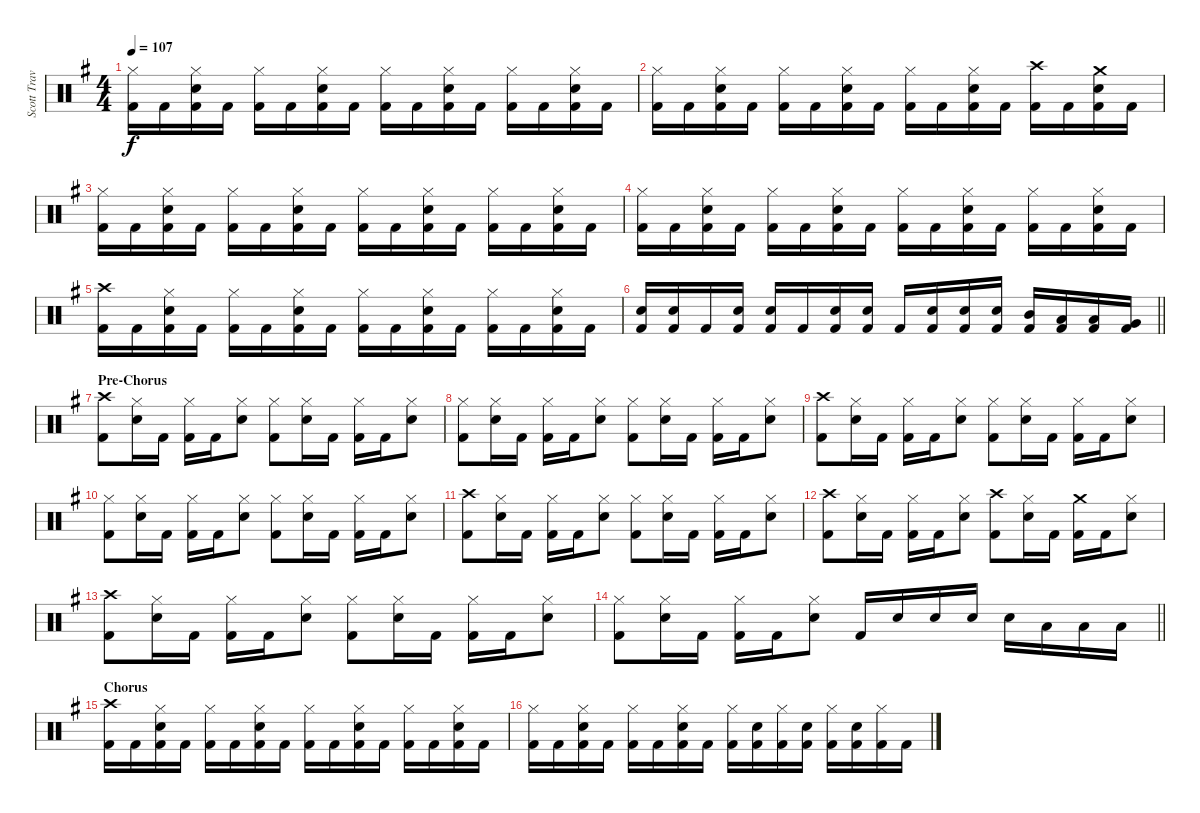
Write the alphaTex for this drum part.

\track ("Scott Travis" "Scott Trav") {instrument percussion}
\staff {score}
\articulation defaults
\ts (4 4)
\tempo 107
\clef neutral
\ks eminor
("Hi-Hat (closed)" "Kick (hit) 2").16{dy f} "Kick (hit) 2".16 ("Hi-Hat (closed)" "Snare (hit) 2" "Kick (hit) 2").16 "Kick (hit) 2".16 ("Hi-Hat (closed)" "Kick (hit) 2").16 "Kick (hit) 2".16 ("Hi-Hat (closed)" "Snare (hit) 2" "Kick (hit) 2").16 "Kick (hit) 2".16 ("Hi-Hat (closed)" "Kick (hit) 2").16 "Kick (hit) 2".16 ("Hi-Hat (closed)" "Snare (hit) 2" "Kick (hit) 2").16 "Kick (hit) 2".16 ("Hi-Hat (closed)" "Kick (hit) 2").16 "Kick (hit) 2".16 ("Hi-Hat (closed)" "Snare (hit) 2" "Kick (hit) 2").16 "Kick (hit) 2".16 |
("Hi-Hat (closed)" "Kick (hit) 2").16 "Kick (hit) 2".16 ("Hi-Hat (closed)" "Snare (hit) 2" "Kick (hit) 2").16 "Kick (hit) 2".16 ("Hi-Hat (closed)" "Kick (hit) 2").16 "Kick (hit) 2".16 ("Hi-Hat (closed)" "Snare (hit) 2" "Kick (hit) 2").16 "Kick (hit) 2".16 ("Hi-Hat (closed)" "Kick (hit) 2").16 "Kick (hit) 2".16 ("Hi-Hat (closed)" "Snare (hit) 2" "Kick (hit) 2").16 "Kick (hit) 2".16 ("Crash high (hit)" "Kick (hit) 2").16 "Kick (hit) 2".16 ("Crash medium (hit)" "Snare (hit) 2" "Kick (hit) 2").16 "Kick (hit) 2".16 |
("Hi-Hat (closed)" "Kick (hit) 2").16 "Kick (hit) 2".16 ("Hi-Hat (closed)" "Snare (hit) 2" "Kick (hit) 2").16 "Kick (hit) 2".16 ("Hi-Hat (closed)" "Kick (hit) 2").16 "Kick (hit) 2".16 ("Hi-Hat (closed)" "Snare (hit) 2" "Kick (hit) 2").16 "Kick (hit) 2".16 ("Hi-Hat (closed)" "Kick (hit) 2").16 "Kick (hit) 2".16 ("Hi-Hat (closed)" "Snare (hit) 2" "Kick (hit) 2").16 "Kick (hit) 2".16 ("Hi-Hat (closed)" "Kick (hit) 2").16 "Kick (hit) 2".16 ("Hi-Hat (closed)" "Snare (hit) 2" "Kick (hit) 2").16 "Kick (hit) 2".16 |
("Hi-Hat (closed)" "Kick (hit) 2").16 "Kick (hit) 2".16 ("Hi-Hat (closed)" "Snare (hit) 2" "Kick (hit) 2").16 "Kick (hit) 2".16 ("Hi-Hat (closed)" "Kick (hit) 2").16 "Kick (hit) 2".16 ("Hi-Hat (closed)" "Snare (hit) 2" "Kick (hit) 2").16 "Kick (hit) 2".16 ("Hi-Hat (closed)" "Kick (hit) 2").16 "Kick (hit) 2".16 ("Hi-Hat (closed)" "Snare (hit) 2" "Kick (hit) 2").16 "Kick (hit) 2".16 ("Hi-Hat (closed)" "Kick (hit) 2").16 "Kick (hit) 2".16 ("Hi-Hat (closed)" "Snare (hit) 2" "Kick (hit) 2").16 "Kick (hit) 2".16 |
("Crash high (hit)" "Kick (hit) 2").16 "Kick (hit) 2".16 ("Hi-Hat (closed)" "Snare (hit) 2" "Kick (hit) 2").16 "Kick (hit) 2".16 ("Hi-Hat (closed)" "Kick (hit) 2").16 "Kick (hit) 2".16 ("Hi-Hat (closed)" "Snare (hit) 2" "Kick (hit) 2").16 "Kick (hit) 2".16 ("Hi-Hat (closed)" "Kick (hit) 2").16 "Kick (hit) 2".16 ("Hi-Hat (closed)" "Snare (hit) 2" "Kick (hit) 2").16 "Kick (hit) 2".16 ("Hi-Hat (closed)" "Kick (hit) 2").16 "Kick (hit) 2".16 ("Hi-Hat (closed)" "Snare (hit) 2" "Kick (hit) 2").16 "Kick (hit) 2".16 |
\barLineRight lightlight
("Snare (hit) 2" "Kick (hit) 2").16 ("Snare (hit) 2" "Kick (hit) 2").16 "Kick (hit) 2".16 ("Snare (hit) 2" "Kick (hit) 2").16 ("Snare (hit) 2" "Kick (hit) 2").16 "Kick (hit) 2".16 ("Snare (hit) 2" "Kick (hit) 2").16 ("Snare (hit) 2" "Kick (hit) 2").16 "Kick (hit) 2".16 ("Snare (hit) 2" "Kick (hit) 2").16 ("Snare (hit) 2" "Kick (hit) 2").16 ("Snare (hit) 2" "Kick (hit) 2").16 ("Mid Tom (hit)" "Kick (hit) 2").16 ("Low Tom (hit)" "Kick (hit) 2").16 ("Low Tom (hit)" "Kick (hit) 2").16 ("Very Low Tom (hit)" "Kick (hit) 2").16 |
\section ("" "Pre-Chorus")
("Crash high (hit)" "Kick (hit) 2").8 ("Hi-Hat (closed)" "Snare (hit) 2").16 "Kick (hit) 2".16 ("Hi-Hat (closed)" "Kick (hit) 2").16 "Kick (hit) 2".16 ("Hi-Hat (closed)" "Snare (hit) 2").8 ("Hi-Hat (closed)" "Kick (hit) 2").8 ("Hi-Hat (closed)" "Snare (hit) 2").16 "Kick (hit) 2".16 ("Hi-Hat (closed)" "Kick (hit) 2").16 "Kick (hit) 2".16 ("Hi-Hat (closed)" "Snare (hit) 2").8 |
("Hi-Hat (closed)" "Kick (hit) 2").8 ("Hi-Hat (closed)" "Snare (hit) 2").16 "Kick (hit) 2".16 ("Hi-Hat (closed)" "Kick (hit) 2").16 "Kick (hit) 2".16 ("Hi-Hat (closed)" "Snare (hit) 2").8 ("Hi-Hat (closed)" "Kick (hit) 2").8 ("Hi-Hat (closed)" "Snare (hit) 2").16 "Kick (hit) 2".16 ("Hi-Hat (closed)" "Kick (hit) 2").16 "Kick (hit) 2".16 ("Hi-Hat (closed)" "Snare (hit) 2").8 |
("Crash high (hit)" "Kick (hit) 2").8 ("Hi-Hat (closed)" "Snare (hit) 2").16 "Kick (hit) 2".16 ("Hi-Hat (closed)" "Kick (hit) 2").16 "Kick (hit) 2".16 ("Hi-Hat (closed)" "Snare (hit) 2").8 ("Hi-Hat (closed)" "Kick (hit) 2").8 ("Hi-Hat (closed)" "Snare (hit) 2").16 "Kick (hit) 2".16 ("Hi-Hat (closed)" "Kick (hit) 2").16 "Kick (hit) 2".16 ("Hi-Hat (closed)" "Snare (hit) 2").8 |
("Hi-Hat (closed)" "Kick (hit) 2").8 ("Hi-Hat (closed)" "Snare (hit) 2").16 "Kick (hit) 2".16 ("Hi-Hat (closed)" "Kick (hit) 2").16 "Kick (hit) 2".16 ("Hi-Hat (closed)" "Snare (hit) 2").8 ("Hi-Hat (closed)" "Kick (hit) 2").8 ("Hi-Hat (closed)" "Snare (hit) 2").16 "Kick (hit) 2".16 ("Hi-Hat (closed)" "Kick (hit) 2").16 "Kick (hit) 2".16 ("Hi-Hat (closed)" "Snare (hit) 2").8 |
("Crash high (hit)" "Kick (hit) 2").8 ("Hi-Hat (closed)" "Snare (hit) 2").16 "Kick (hit) 2".16 ("Hi-Hat (closed)" "Kick (hit) 2").16 "Kick (hit) 2".16 ("Hi-Hat (closed)" "Snare (hit) 2").8 ("Hi-Hat (closed)" "Kick (hit) 2").8 ("Hi-Hat (closed)" "Snare (hit) 2").16 "Kick (hit) 2".16 ("Hi-Hat (closed)" "Kick (hit) 2").16 "Kick (hit) 2".16 ("Hi-Hat (closed)" "Snare (hit) 2").8 |
("Crash high (hit)" "Kick (hit) 2").8 ("Hi-Hat (closed)" "Snare (hit) 2").16 "Kick (hit) 2".16 ("Hi-Hat (closed)" "Kick (hit) 2").16 "Kick (hit) 2".16 ("Hi-Hat (closed)" "Snare (hit) 2").8 ("Crash high (hit)" "Kick (hit) 2").8 ("Hi-Hat (closed)" "Snare (hit) 2").16 "Kick (hit) 2".16 ("Crash medium (hit)" "Kick (hit) 2").16 "Kick (hit) 2".16 ("Hi-Hat (closed)" "Snare (hit) 2").8 |
("Crash high (hit)" "Kick (hit) 2").8 ("Hi-Hat (closed)" "Snare (hit) 2").16 "Kick (hit) 2".16 ("Hi-Hat (closed)" "Kick (hit) 2").16 "Kick (hit) 2".16 ("Hi-Hat (closed)" "Snare (hit) 2").8 ("Hi-Hat (closed)" "Kick (hit) 2").8 ("Hi-Hat (closed)" "Snare (hit) 2").16 "Kick (hit) 2".16 ("Hi-Hat (closed)" "Kick (hit) 2").16 "Kick (hit) 2".16 ("Hi-Hat (closed)" "Snare (hit) 2").8 |
\barLineRight lightlight
("Hi-Hat (closed)" "Kick (hit) 2").8 ("Hi-Hat (closed)" "Snare (hit) 2").16 "Kick (hit) 2".16 ("Hi-Hat (closed)" "Kick (hit) 2").16 "Kick (hit) 2".16 ("Hi-Hat (closed)" "Snare (hit) 2").8 "Kick (hit) 2".16 "Snare (hit) 2".16 "Snare (hit) 2".16 "Snare (hit) 2".16 "Snare (hit) 2".16 "Low Tom (hit)".16 "Low Tom (hit)".16 "Low Floor Tom (hit)".16 |
\section ("" "Chorus")
("Crash high (hit)" "Kick (hit) 2").16 "Kick (hit) 2".16 ("Hi-Hat (closed)" "Snare (hit) 2" "Kick (hit) 2").16 "Kick (hit) 2".16 ("Hi-Hat (closed)" "Kick (hit) 2").16 "Kick (hit) 2".16 ("Hi-Hat (closed)" "Snare (hit) 2" "Kick (hit) 2").16 "Kick (hit) 2".16 ("Hi-Hat (closed)" "Kick (hit) 2").16 "Kick (hit) 2".16 ("Hi-Hat (closed)" "Snare (hit) 2" "Kick (hit) 2").16 "Kick (hit) 2".16 ("Hi-Hat (closed)" "Kick (hit) 2").16 "Kick (hit) 2".16 ("Hi-Hat (closed)" "Snare (hit) 2" "Kick (hit) 2").16 "Kick (hit) 2".16 |
("Hi-Hat (closed)" "Kick (hit) 2").16 "Kick (hit) 2".16 ("Hi-Hat (closed)" "Snare (hit) 2" "Kick (hit) 2").16 "Kick (hit) 2".16 ("Hi-Hat (closed)" "Kick (hit) 2").16 "Kick (hit) 2".16 ("Hi-Hat (closed)" "Snare (hit) 2" "Kick (hit) 2").16 "Kick (hit) 2".16 ("Hi-Hat (closed)" "Kick (hit) 2").16 ("Snare (hit) 2" "Kick (hit) 2").16 ("Hi-Hat (closed)" "Kick (hit) 2").16 ("Snare (hit) 2" "Kick (hit) 2").16 ("Hi-Hat (closed)" "Kick (hit) 2").16 ("Snare (hit) 2" "Kick (hit) 2").16 ("Hi-Hat (closed)" "Kick (hit) 2").16 "Kick (hit) 2".16
